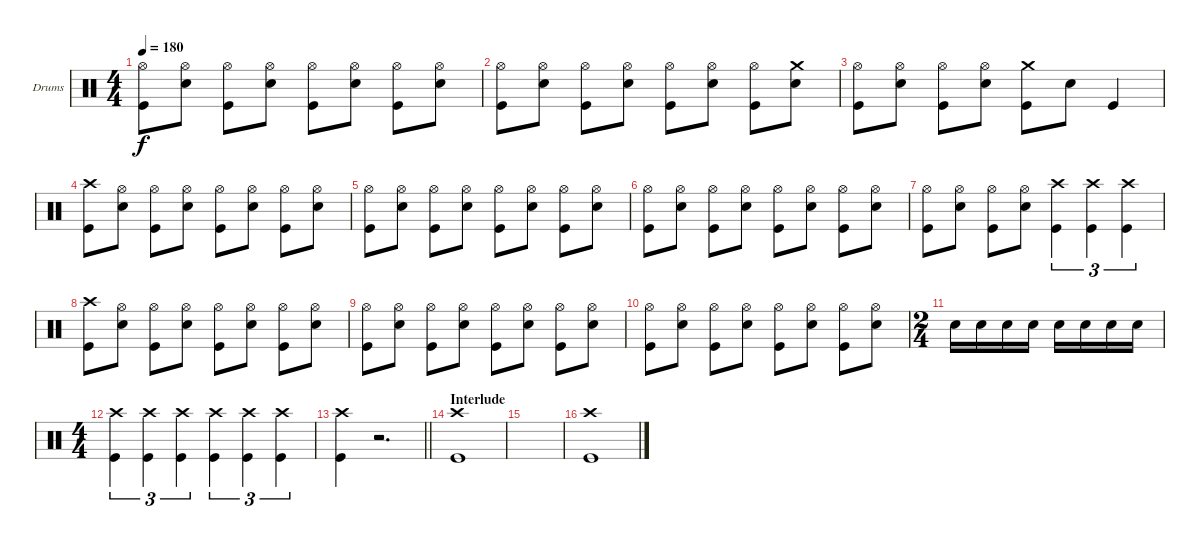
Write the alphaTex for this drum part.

\bracketExtendMode groupsimilarinstruments
\firstSystemTrackNameOrientation horizontal
\otherSystemsTrackNameOrientation horizontal
\track ("Drums" "Drums") {instrument percussion}
\staff {score}
\articulation defaults
\ts (4 4)
\tempo 180
\clef neutral
\ks c
("Hi-Hat (open)" "Kick (hit)").8{dy f} ("Hi-Hat (open)" "Snare (hit) 2").8 ("Hi-Hat (open)" "Kick (hit)").8 ("Hi-Hat (open)" "Snare (hit) 2").8 ("Hi-Hat (open)" "Kick (hit)").8 ("Hi-Hat (open)" "Snare (hit) 2").8 ("Hi-Hat (open)" "Kick (hit)").8 ("Hi-Hat (open)" "Snare (hit) 2").8 |
("Hi-Hat (open)" "Kick (hit)").8 ("Hi-Hat (open)" "Snare (hit) 2").8 ("Hi-Hat (open)" "Kick (hit)").8 ("Hi-Hat (open)" "Snare (hit) 2").8 ("Hi-Hat (open)" "Kick (hit)").8 ("Hi-Hat (open)" "Snare (hit) 2").8 ("Hi-Hat (open)" "Kick (hit)").8 ("Snare (hit) 2" "Crash medium (hit)").8 |
("Hi-Hat (open)" "Kick (hit)").8 ("Hi-Hat (open)" "Snare (hit) 2").8 ("Hi-Hat (open)" "Kick (hit)").8 ("Hi-Hat (open)" "Snare (hit) 2").8 ("Kick (hit)" "Crash medium (hit)").8 "Snare (hit) 2".8 "Kick (hit)".4 |
("Crash high (hit)" "Kick (hit)").8 ("Hi-Hat (open)" "Snare (hit) 2").8 ("Hi-Hat (open)" "Kick (hit)").8 ("Hi-Hat (open)" "Snare (hit) 2").8 ("Hi-Hat (open)" "Kick (hit)").8 ("Hi-Hat (open)" "Snare (hit) 2").8 ("Hi-Hat (open)" "Kick (hit)").8 ("Hi-Hat (open)" "Snare (hit) 2").8 |
("Hi-Hat (open)" "Kick (hit)").8 ("Hi-Hat (open)" "Snare (hit) 2").8 ("Hi-Hat (open)" "Kick (hit)").8 ("Hi-Hat (open)" "Snare (hit) 2").8 ("Hi-Hat (open)" "Kick (hit)").8 ("Hi-Hat (open)" "Snare (hit) 2").8 ("Hi-Hat (open)" "Kick (hit)").8 ("Hi-Hat (open)" "Snare (hit) 2").8 |
("Hi-Hat (open)" "Kick (hit)").8 ("Hi-Hat (open)" "Snare (hit) 2").8 ("Hi-Hat (open)" "Kick (hit)").8 ("Hi-Hat (open)" "Snare (hit) 2").8 ("Hi-Hat (open)" "Kick (hit)").8 ("Hi-Hat (open)" "Snare (hit) 2").8 ("Hi-Hat (open)" "Kick (hit)").8 ("Hi-Hat (open)" "Snare (hit) 2").8 |
("Hi-Hat (open)" "Kick (hit)").8 ("Hi-Hat (open)" "Snare (hit) 2").8 ("Hi-Hat (open)" "Kick (hit)").8 ("Hi-Hat (open)" "Snare (hit) 2").8 ("Crash high (hit)" "Kick (hit)").4{tu (3 2)} ("Crash high (hit)" "Kick (hit)").4{tu (3 2)} ("Crash high (hit)" "Kick (hit)").4{tu (3 2)} |
("Crash high (hit)" "Kick (hit)").8 ("Hi-Hat (open)" "Snare (hit) 2").8 ("Hi-Hat (open)" "Kick (hit)").8 ("Hi-Hat (open)" "Snare (hit) 2").8 ("Hi-Hat (open)" "Kick (hit)").8 ("Hi-Hat (open)" "Snare (hit) 2").8 ("Hi-Hat (open)" "Kick (hit)").8 ("Hi-Hat (open)" "Snare (hit) 2").8 |
("Hi-Hat (open)" "Kick (hit)").8 ("Hi-Hat (open)" "Snare (hit) 2").8 ("Hi-Hat (open)" "Kick (hit)").8 ("Hi-Hat (open)" "Snare (hit) 2").8 ("Hi-Hat (open)" "Kick (hit)").8 ("Hi-Hat (open)" "Snare (hit) 2").8 ("Hi-Hat (open)" "Kick (hit)").8 ("Hi-Hat (open)" "Snare (hit) 2").8 |
("Hi-Hat (open)" "Kick (hit)").8 ("Hi-Hat (open)" "Snare (hit) 2").8 ("Hi-Hat (open)" "Kick (hit)").8 ("Hi-Hat (open)" "Snare (hit) 2").8 ("Hi-Hat (open)" "Kick (hit)").8 ("Hi-Hat (open)" "Snare (hit) 2").8 ("Hi-Hat (open)" "Kick (hit)").8 ("Hi-Hat (open)" "Snare (hit) 2").8 |
\ts (2 4)
"Snare (hit) 2".16 "Snare (hit) 2".16 "Snare (hit) 2".16 "Snare (hit) 2".16 "Snare (hit) 2".16 "Snare (hit) 2".16 "Snare (hit) 2".16 "Snare (hit) 2".16 |
\ts (4 4)
("Crash high (hit)" "Kick (hit)").4{tu (3 2)} ("Crash high (hit)" "Kick (hit)").4{tu (3 2)} ("Crash high (hit)" "Kick (hit)").4{tu (3 2)} ("Crash high (hit)" "Kick (hit)").4{tu (3 2)} ("Crash high (hit)" "Kick (hit)").4{tu (3 2)} ("Crash high (hit)" "Kick (hit)").4{tu (3 2)} |
\barLineRight lightlight
("Crash high (hit)" "Kick (hit)").4 r.2{d} |
\section ("" "Interlude")
("Crash high (hit)" "Kick (hit)").1 |
|
("Crash high (hit)" "Kick (hit)").1
